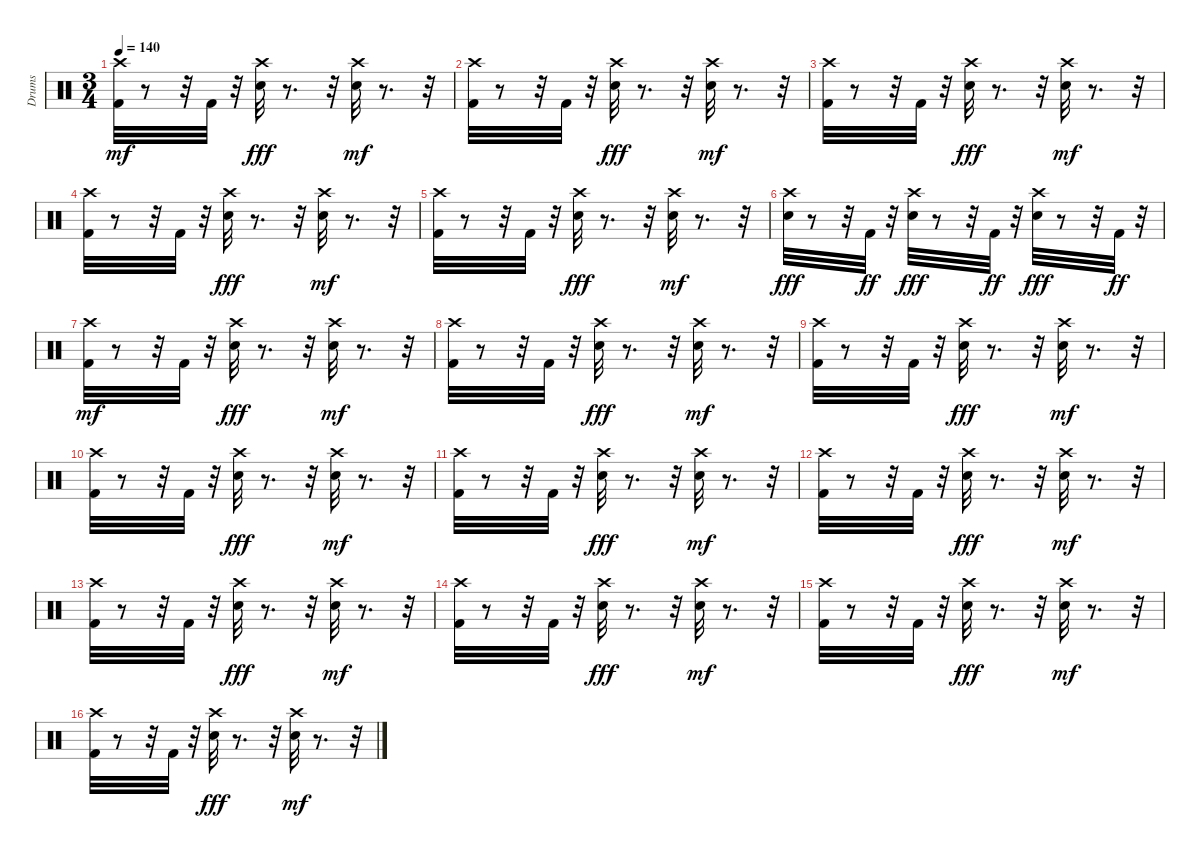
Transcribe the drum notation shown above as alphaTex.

\track ("Drums" "Drums") {instrument percussion}
\staff {score}
\articulation defaults
\ts (3 4)
\tempo 140
\clef neutral
\ks c
("Kick (hit) 2" "Crash high (hit)").32{dy mf} r.8 r.32 "Kick (hit) 2".32 r.32 ("Snare (hit) 2" "Crash high (hit)").32{dy fff} r.8{d} r.32 ("Snare (hit) 2" "Crash high (hit)").32{dy mf} r.8{d} r.32 |
("Kick (hit) 2" "Crash high (hit)").32 r.8 r.32 "Kick (hit) 2".32 r.32 ("Snare (hit) 2" "Crash high (hit)").32{dy fff} r.8{d} r.32 ("Snare (hit) 2" "Crash high (hit)").32{dy mf} r.8{d} r.32 |
("Kick (hit) 2" "Crash high (hit)").32 r.8 r.32 "Kick (hit) 2".32 r.32 ("Snare (hit) 2" "Crash high (hit)").32{dy fff} r.8{d} r.32 ("Snare (hit) 2" "Crash high (hit)").32{dy mf} r.8{d} r.32 |
("Kick (hit) 2" "Crash high (hit)").32 r.8 r.32 "Kick (hit) 2".32 r.32 ("Snare (hit) 2" "Crash high (hit)").32{dy fff} r.8{d} r.32 ("Snare (hit) 2" "Crash high (hit)").32{dy mf} r.8{d} r.32 |
("Kick (hit) 2" "Crash high (hit)").32 r.8 r.32 "Kick (hit) 2".32 r.32 ("Snare (hit) 2" "Crash high (hit)").32{dy fff} r.8{d} r.32 ("Snare (hit) 2" "Crash high (hit)").32{dy mf} r.8{d} r.32 |
("Snare (hit) 2" "Crash high (hit)").32{dy fff} r.8 r.32 "Kick (hit) 2".32{dy ff} r.32 ("Snare (hit) 2" "Crash high (hit)").32{dy fff} r.8 r.32 "Kick (hit) 2".32{dy ff} r.32 ("Snare (hit) 2" "Crash high (hit)").32{dy fff} r.8 r.32 "Kick (hit) 2".32{dy ff} r.32 |
("Kick (hit) 2" "Crash high (hit)").32{dy mf} r.8 r.32 "Kick (hit) 2".32 r.32 ("Snare (hit) 2" "Crash high (hit)").32{dy fff} r.8{d} r.32 ("Snare (hit) 2" "Crash high (hit)").32{dy mf} r.8{d} r.32 |
("Kick (hit) 2" "Crash high (hit)").32 r.8 r.32 "Kick (hit) 2".32 r.32 ("Snare (hit) 2" "Crash high (hit)").32{dy fff} r.8{d} r.32 ("Snare (hit) 2" "Crash high (hit)").32{dy mf} r.8{d} r.32 |
("Kick (hit) 2" "Crash high (hit)").32 r.8 r.32 "Kick (hit) 2".32 r.32 ("Snare (hit) 2" "Crash high (hit)").32{dy fff} r.8{d} r.32 ("Snare (hit) 2" "Crash high (hit)").32{dy mf} r.8{d} r.32 |
("Kick (hit) 2" "Crash high (hit)").32 r.8 r.32 "Kick (hit) 2".32 r.32 ("Snare (hit) 2" "Crash high (hit)").32{dy fff} r.8{d} r.32 ("Snare (hit) 2" "Crash high (hit)").32{dy mf} r.8{d} r.32 |
("Kick (hit) 2" "Crash high (hit)").32 r.8 r.32 "Kick (hit) 2".32 r.32 ("Snare (hit) 2" "Crash high (hit)").32{dy fff} r.8{d} r.32 ("Snare (hit) 2" "Crash high (hit)").32{dy mf} r.8{d} r.32 |
("Kick (hit) 2" "Crash high (hit)").32 r.8 r.32 "Kick (hit) 2".32 r.32 ("Snare (hit) 2" "Crash high (hit)").32{dy fff} r.8{d} r.32 ("Snare (hit) 2" "Crash high (hit)").32{dy mf} r.8{d} r.32 |
("Kick (hit) 2" "Crash high (hit)").32 r.8 r.32 "Kick (hit) 2".32 r.32 ("Snare (hit) 2" "Crash high (hit)").32{dy fff} r.8{d} r.32 ("Snare (hit) 2" "Crash high (hit)").32{dy mf} r.8{d} r.32 |
("Kick (hit) 2" "Crash high (hit)").32 r.8 r.32 "Kick (hit) 2".32 r.32 ("Snare (hit) 2" "Crash high (hit)").32{dy fff} r.8{d} r.32 ("Snare (hit) 2" "Crash high (hit)").32{dy mf} r.8{d} r.32 |
("Kick (hit) 2" "Crash high (hit)").32 r.8 r.32 "Kick (hit) 2".32 r.32 ("Snare (hit) 2" "Crash high (hit)").32{dy fff} r.8{d} r.32 ("Snare (hit) 2" "Crash high (hit)").32{dy mf} r.8{d} r.32 |
("Kick (hit) 2" "Crash high (hit)").32 r.8 r.32 "Kick (hit) 2".32 r.32 ("Snare (hit) 2" "Crash high (hit)").32{dy fff} r.8{d} r.32 ("Snare (hit) 2" "Crash high (hit)").32{dy mf} r.8{d} r.32
